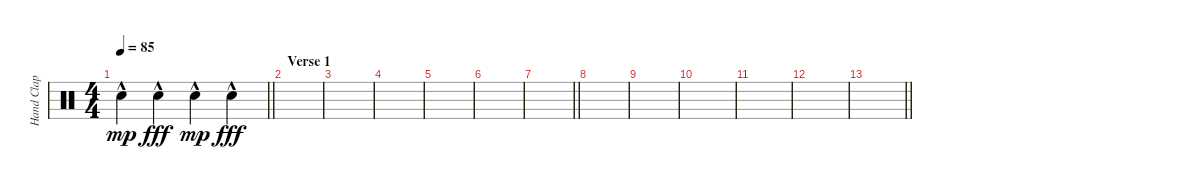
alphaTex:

\track ("Hand Clap" "Hand Clap") {instrument percussion}
\staff {score}
\articulation defaults
\ts (4 4)
\tempo 85
\clef neutral
\barLineRight lightlight
\ks c "Hand Clap (hit)"{hac}.4{dy mp} "Hand Clap (hit)"{hac}.4{dy fff} "Hand Clap (hit)"{hac}.4{dy mp} "Hand Clap (hit)"{hac}.4{dy fff}
|
\section ("" "Verse 1")
|
|
|
|
|
\barLineRight lightlight
|
|
|
|
|
|
\barLineRight lightlight
